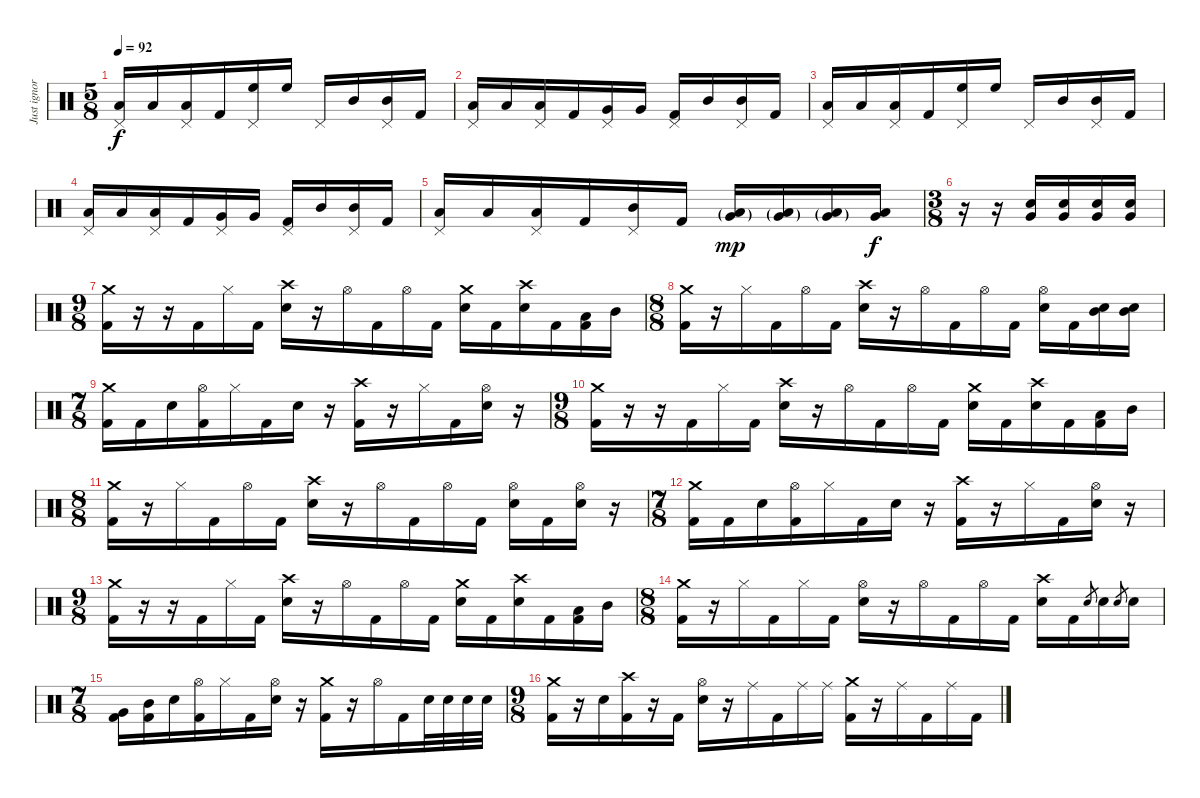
\track ("Just ignore this track" "Just ignor") {instrument percussion}
\staff {score}
\articulation defaults
\ts (5 8)
\tempo 92
\clef neutral
\ks c
("Pedal Hi-Hat (hit)" "Low Floor Tom (hit)").16{dy f} "Low Floor Tom (hit)".16 ("Pedal Hi-Hat (hit)" "Low Floor Tom (hit)").16 "Kick (hit) 2".16 ("Pedal Hi-Hat (hit)" "High Floor Tom (hit)").16 "High Floor Tom (hit)".16 "Pedal Hi-Hat (hit)".16 "Mid Tom (hit)".16 ("Pedal Hi-Hat (hit)" "Mid Tom (hit)").16 "Kick (hit) 2".16 |
("Pedal Hi-Hat (hit)" "Low Floor Tom (hit)").16 "Low Floor Tom (hit)".16 ("Pedal Hi-Hat (hit)" "Low Floor Tom (hit)").16 "Kick (hit) 2".16 ("Pedal Hi-Hat (hit)" "Very Low Tom (hit)").16 "Very Low Tom (hit)".16 ("Pedal Hi-Hat (hit)" "Kick (hit) 2").16 "Mid Tom (hit)".16 ("Pedal Hi-Hat (hit)" "Mid Tom (hit)").16 "Kick (hit) 2".16 |
("Pedal Hi-Hat (hit)" "Low Floor Tom (hit)").16 "Low Floor Tom (hit)".16 ("Pedal Hi-Hat (hit)" "Low Floor Tom (hit)").16 "Kick (hit) 2".16 ("Pedal Hi-Hat (hit)" "High Floor Tom (hit)").16 "High Floor Tom (hit)".16 "Pedal Hi-Hat (hit)".16 "Mid Tom (hit)".16 ("Pedal Hi-Hat (hit)" "Mid Tom (hit)").16 "Kick (hit) 2".16 |
("Pedal Hi-Hat (hit)" "Low Floor Tom (hit)").16 "Low Floor Tom (hit)".16 ("Pedal Hi-Hat (hit)" "Low Floor Tom (hit)").16 "Kick (hit) 2".16 ("Pedal Hi-Hat (hit)" "Very Low Tom (hit)").16 "Very Low Tom (hit)".16 ("Pedal Hi-Hat (hit)" "Kick (hit) 2").16 "Mid Tom (hit)".16 ("Pedal Hi-Hat (hit)" "Mid Tom (hit)").16 "Kick (hit) 2".16 |
("Pedal Hi-Hat (hit)" "Low Floor Tom (hit)").16 "Low Floor Tom (hit)".16 ("Pedal Hi-Hat (hit)" "Low Floor Tom (hit)").16 "Kick (hit) 2".16 ("Pedal Hi-Hat (hit)" "Mid Tom (hit)").16 "Kick (hit) 2".16 ("Low Floor Tom (hit)"{g} "Very Low Tom (hit)"{g}).16{dy mp} ("Low Floor Tom (hit)"{g} "Very Low Tom (hit)"{g}).16 ("Low Floor Tom (hit)"{g} "Very Low Tom (hit)"{g}).16 ("Low Floor Tom (hit)" "Very Low Tom (hit)").16{dy f} |
\ts (3 8)
r.16 r.16 ("Very Low Tom (hit)" "Electric Snare (hit)").16 ("Very Low Tom (hit)" "Electric Snare (hit)").16 ("Very Low Tom (hit)" "Electric Snare (hit)").16 ("Very Low Tom (hit)" "Electric Snare (hit)").16 |
\ts (9 8)
("Crash medium (hit)" "Kick (hit) 2").16 r.16 r.16 "Kick (hit) 2".16 "Hi-Hat (closed)".16 "Kick (hit) 2".16 ("Crash high (hit)" "Electric Snare (hit)").16 r.16 "Hi-Hat (open)".16 "Kick (hit) 2".16 "Hi-Hat (open)".16 "Kick (hit) 2".16 ("Crash medium (hit)" "Electric Snare (hit)").16 "Kick (hit) 2".16 ("Crash high (hit)" "Electric Snare (hit)").16 "Kick (hit) 2".16 ("Low Tom (hit)" "Kick (hit) 2").16 "Mid Tom (hit)".16 |
\ts (8 8)
("Crash medium (hit)" "Kick (hit) 2").16 r.16 "Hi-Hat (closed)".16 "Kick (hit) 2".16 "Hi-Hat (open)".16 "Kick (hit) 2".16 ("Crash high (hit)" "Electric Snare (hit)").16 r.16 "Hi-Hat (open)".16 "Kick (hit) 2".16 "Hi-Hat (open)".16 "Kick (hit) 2".16 ("Hi-Hat (open)" "Electric Snare (hit)").16 "Kick (hit) 2".16 ("Mid Tom (hit)" "Electric Snare (hit)").16 ("Mid Tom (hit)" "Electric Snare (hit)").16 |
\ts (7 8)
("Crash medium (hit)" "Kick (hit) 2").16 "Kick (hit) 2".16 "Electric Snare (hit)".16 ("Hi-Hat (open)" "Kick (hit) 2").16 "Hi-Hat (closed)".16 "Kick (hit) 2".16 "Electric Snare (hit)".16 r.16 ("Crash high (hit)" "Kick (hit) 2").16 r.16 "Hi-Hat (closed)".16 "Kick (hit) 2".16 ("Hi-Hat (open)" "Electric Snare (hit)").16 r.16 |
\ts (9 8)
("Crash medium (hit)" "Kick (hit) 2").16 r.16 r.16 "Kick (hit) 2".16 "Hi-Hat (closed)".16 "Kick (hit) 2".16 ("Crash high (hit)" "Electric Snare (hit)").16 r.16 "Hi-Hat (open)".16 "Kick (hit) 2".16 "Hi-Hat (open)".16 "Kick (hit) 2".16 ("Crash medium (hit)" "Electric Snare (hit)").16 "Kick (hit) 2".16 ("Crash high (hit)" "Electric Snare (hit)").16 "Kick (hit) 2".16 ("Low Tom (hit)" "Kick (hit) 2").16 "Mid Tom (hit)".16 |
\ts (8 8)
("Crash medium (hit)" "Kick (hit) 2").16 r.16 "Hi-Hat (closed)".16 "Kick (hit) 2".16 "Hi-Hat (open)".16 "Kick (hit) 2".16 ("Crash high (hit)" "Electric Snare (hit)").16 r.16 "Hi-Hat (open)".16 "Kick (hit) 2".16 "Hi-Hat (open)".16 "Kick (hit) 2".16 ("Hi-Hat (open)" "Electric Snare (hit)").16 "Kick (hit) 2".16 ("Hi-Hat (open)" "Electric Snare (hit)").16 r.16 |
\ts (7 8)
("Crash medium (hit)" "Kick (hit) 2").16 "Kick (hit) 2".16 "Electric Snare (hit)".16 ("Hi-Hat (open)" "Kick (hit) 2").16 "Hi-Hat (closed)".16 "Kick (hit) 2".16 "Electric Snare (hit)".16 r.16 ("Crash high (hit)" "Kick (hit) 2").16 r.16 "Hi-Hat (closed)".16 "Kick (hit) 2".16 ("Hi-Hat (open)" "Electric Snare (hit)").16 r.16 |
\ts (9 8)
("Crash medium (hit)" "Kick (hit) 2").16 r.16 r.16 "Kick (hit) 2".16 "Hi-Hat (closed)".16 "Kick (hit) 2".16 ("Crash high (hit)" "Electric Snare (hit)").16 r.16 "Hi-Hat (open)".16 "Kick (hit) 2".16 "Hi-Hat (open)".16 "Kick (hit) 2".16 ("Crash medium (hit)" "Electric Snare (hit)").16 "Kick (hit) 2".16 ("Crash high (hit)" "Electric Snare (hit)").16 "Kick (hit) 2".16 ("Low Tom (hit)" "Kick (hit) 2").16 "Mid Tom (hit)".16 |
\ts (8 8)
("Crash medium (hit)" "Kick (hit) 2").16 r.16 "Hi-Hat (closed)".16 "Kick (hit) 2".16 "Hi-Hat (closed)".16 "Kick (hit) 2".16 ("Hi-Hat (open)" "Electric Snare (hit)").16 r.16 "Hi-Hat (open)".16 "Kick (hit) 2".16 "Hi-Hat (open)".16 "Kick (hit) 2".16 ("Crash high (hit)" "Electric Snare (hit)").16 "Kick (hit) 2".16 "Electric Snare (hit)".8{gr} "Electric Snare (hit)".16 "Electric Snare (hit)".8{gr} "Electric Snare (hit)".16 |
\ts (7 8)
("Very Low Tom (hit)" "Kick (hit) 2").16 ("Mid Tom (hit)" "Kick (hit) 2").16 "Electric Snare (hit)".16 ("Hi-Hat (open)" "Kick (hit) 2").16 "Hi-Hat (closed)".16 "Kick (hit) 2".16 ("Hi-Hat (open)" "Electric Snare (hit)").16 r.16 ("Crash medium (hit)" "Kick (hit) 2").16 r.16 "Hi-Hat (open)".16 "Kick (hit) 2".16 "Electric Snare (hit)".32 "Electric Snare (hit)".32 "Electric Snare (hit)".32 "Electric Snare (hit)".32 |
\ts (9 8)
("Crash medium (hit)" "Kick (hit) 2").16 r.16 "Electric Snare (hit)".16 ("Crash high (hit)" "Kick (hit) 2").16 r.16 "Kick (hit) 2".16 ("Hi-Hat (open)" "Electric Snare (hit)").16 r.16 "Ride (middle)".16 "Kick (hit) 2".16 "Ride (middle)".16 "Ride (middle)".16 ("Crash medium (hit)" "Kick (hit) 2").16 r.16 "Ride (middle)".16 "Kick (hit) 2".16 "Ride (middle)".16 "Kick (hit) 2".16
